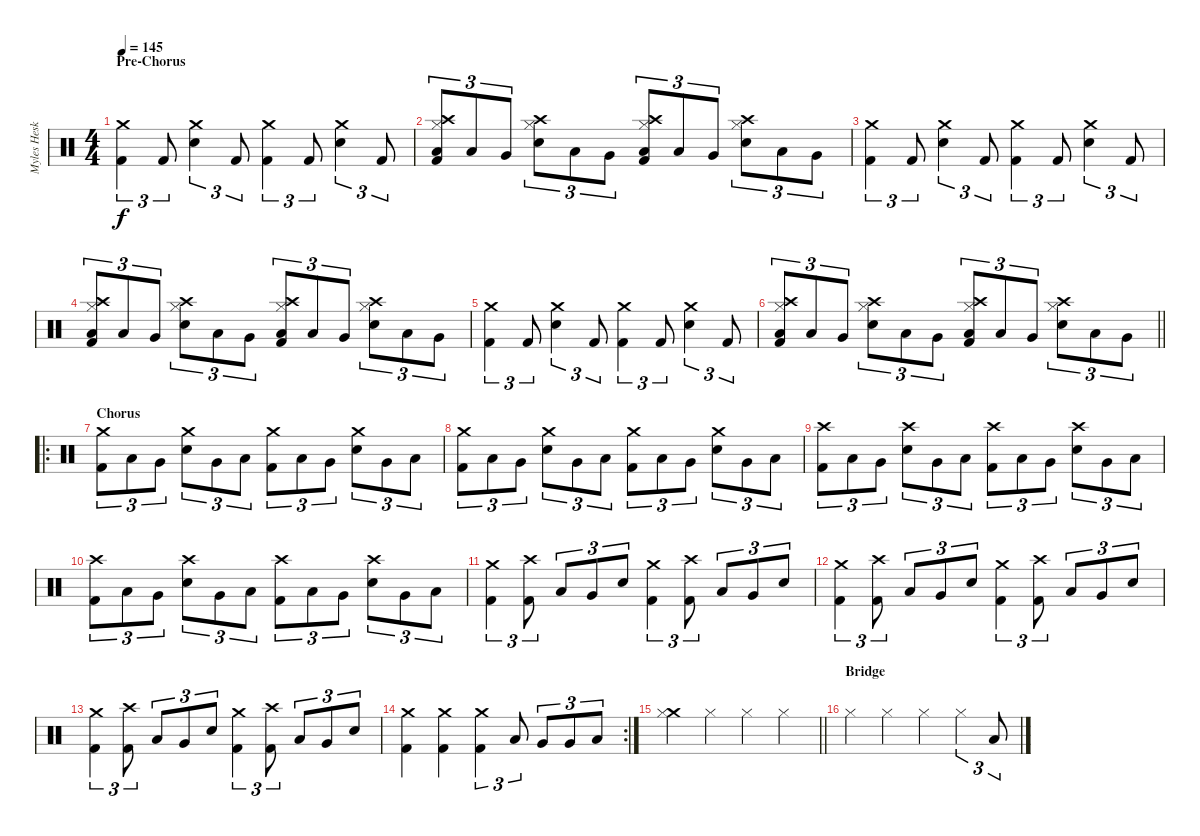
\track ("Myles Heskett" "Myles Hesk") {instrument percussion}
\staff {score}
\articulation defaults
\ts (4 4)
\section ("" "Pre-Chorus")
\tempo 145
\clef neutral
\ks c
("Crash medium (hit)" "Kick (hit) 2").4{tu (3 2) dy f} "Kick (hit) 2".8{tu (3 2)} ("Crash medium (hit)" "Snare (hit) 2").4{tu (3 2)} "Kick (hit) 2".8{tu (3 2)} ("Crash medium (hit)" "Kick (hit) 2").4{tu (3 2)} "Kick (hit) 2".8{tu (3 2)} ("Crash medium (hit)" "Snare (hit) 2").4{tu (3 2)} "Kick (hit) 2".8{tu (3 2)} |
("Crash high (hit)" "Hi-Hat (closed)" "Low Tom (hit)" "Kick (hit) 2").8{tu (3 2)} "Low Tom (hit)".8{tu (3 2)} "Very Low Tom (hit)".8{tu (3 2)} ("Crash high (hit)" "Hi-Hat (closed)" "Snare (hit) 2").8{tu (3 2)} "Low Tom (hit)".8{tu (3 2)} "Very Low Tom (hit)".8{tu (3 2)} ("Crash high (hit)" "Hi-Hat (closed)" "Low Tom (hit)" "Kick (hit) 2").8{tu (3 2)} "Low Tom (hit)".8{tu (3 2)} "Very Low Tom (hit)".8{tu (3 2)} ("Crash high (hit)" "Hi-Hat (closed)" "Snare (hit) 2").8{tu (3 2)} "Low Tom (hit)".8{tu (3 2)} "Very Low Tom (hit)".8{tu (3 2)} |
("Crash medium (hit)" "Kick (hit) 2").4{tu (3 2)} "Kick (hit) 2".8{tu (3 2)} ("Crash medium (hit)" "Snare (hit) 2").4{tu (3 2)} "Kick (hit) 2".8{tu (3 2)} ("Crash medium (hit)" "Kick (hit) 2").4{tu (3 2)} "Kick (hit) 2".8{tu (3 2)} ("Crash medium (hit)" "Snare (hit) 2").4{tu (3 2)} "Kick (hit) 2".8{tu (3 2)} |
("Crash high (hit)" "Hi-Hat (closed)" "Low Tom (hit)" "Kick (hit) 2").8{tu (3 2)} "Low Tom (hit)".8{tu (3 2)} "Very Low Tom (hit)".8{tu (3 2)} ("Crash high (hit)" "Hi-Hat (closed)" "Snare (hit) 2").8{tu (3 2)} "Low Tom (hit)".8{tu (3 2)} "Very Low Tom (hit)".8{tu (3 2)} ("Crash high (hit)" "Hi-Hat (closed)" "Low Tom (hit)" "Kick (hit) 2").8{tu (3 2)} "Low Tom (hit)".8{tu (3 2)} "Very Low Tom (hit)".8{tu (3 2)} ("Crash high (hit)" "Hi-Hat (closed)" "Snare (hit) 2").8{tu (3 2)} "Low Tom (hit)".8{tu (3 2)} "Very Low Tom (hit)".8{tu (3 2)} |
("Crash medium (hit)" "Kick (hit) 2").4{tu (3 2)} "Kick (hit) 2".8{tu (3 2)} ("Crash medium (hit)" "Snare (hit) 2").4{tu (3 2)} "Kick (hit) 2".8{tu (3 2)} ("Crash medium (hit)" "Kick (hit) 2").4{tu (3 2)} "Kick (hit) 2".8{tu (3 2)} ("Crash medium (hit)" "Snare (hit) 2").4{tu (3 2)} "Kick (hit) 2".8{tu (3 2)} |
\barLineRight lightlight
("Crash high (hit)" "Hi-Hat (closed)" "Low Tom (hit)" "Kick (hit) 2").8{tu (3 2)} "Low Tom (hit)".8{tu (3 2)} "Very Low Tom (hit)".8{tu (3 2)} ("Crash high (hit)" "Hi-Hat (closed)" "Snare (hit) 2").8{tu (3 2)} "Low Tom (hit)".8{tu (3 2)} "Very Low Tom (hit)".8{tu (3 2)} ("Crash high (hit)" "Hi-Hat (closed)" "Low Tom (hit)" "Kick (hit) 2").8{tu (3 2)} "Low Tom (hit)".8{tu (3 2)} "Very Low Tom (hit)".8{tu (3 2)} ("Crash high (hit)" "Hi-Hat (closed)" "Snare (hit) 2").8{tu (3 2)} "Low Tom (hit)".8{tu (3 2)} "Very Low Tom (hit)".8{tu (3 2)} |
\ro
\section ("" "Chorus")
("Crash medium (hit)" "Kick (hit) 2").8{tu (3 2)} "Low Tom (hit)".8{tu (3 2)} "Very Low Tom (hit)".8{tu (3 2)} ("Crash medium (hit)" "Snare (hit) 2").8{tu (3 2)} "Very Low Tom (hit)".8{tu (3 2)} "Low Tom (hit)".8{tu (3 2)} ("Crash medium (hit)" "Kick (hit) 2").8{tu (3 2)} "Low Tom (hit)".8{tu (3 2)} "Very Low Tom (hit)".8{tu (3 2)} ("Crash medium (hit)" "Snare (hit) 2").8{tu (3 2)} "Very Low Tom (hit)".8{tu (3 2)} "Low Tom (hit)".8{tu (3 2)} |
("Crash medium (hit)" "Kick (hit) 2").8{tu (3 2)} "Low Tom (hit)".8{tu (3 2)} "Very Low Tom (hit)".8{tu (3 2)} ("Crash medium (hit)" "Snare (hit) 2").8{tu (3 2)} "Very Low Tom (hit)".8{tu (3 2)} "Low Tom (hit)".8{tu (3 2)} ("Crash medium (hit)" "Kick (hit) 2").8{tu (3 2)} "Low Tom (hit)".8{tu (3 2)} "Very Low Tom (hit)".8{tu (3 2)} ("Crash medium (hit)" "Snare (hit) 2").8{tu (3 2)} "Very Low Tom (hit)".8{tu (3 2)} "Low Tom (hit)".8{tu (3 2)} |
("Crash high (hit)" "Kick (hit) 2").8{tu (3 2)} "Low Tom (hit)".8{tu (3 2)} "Very Low Tom (hit)".8{tu (3 2)} ("Crash high (hit)" "Snare (hit) 2").8{tu (3 2)} "Very Low Tom (hit)".8{tu (3 2)} "Low Tom (hit)".8{tu (3 2)} ("Crash high (hit)" "Kick (hit) 2").8{tu (3 2)} "Low Tom (hit)".8{tu (3 2)} "Very Low Tom (hit)".8{tu (3 2)} ("Crash high (hit)" "Snare (hit) 2").8{tu (3 2)} "Very Low Tom (hit)".8{tu (3 2)} "Low Tom (hit)".8{tu (3 2)} |
("Crash high (hit)" "Kick (hit) 2").8{tu (3 2)} "Low Tom (hit)".8{tu (3 2)} "Very Low Tom (hit)".8{tu (3 2)} ("Crash high (hit)" "Snare (hit) 2").8{tu (3 2)} "Very Low Tom (hit)".8{tu (3 2)} "Low Tom (hit)".8{tu (3 2)} ("Crash high (hit)" "Kick (hit) 2").8{tu (3 2)} "Low Tom (hit)".8{tu (3 2)} "Very Low Tom (hit)".8{tu (3 2)} ("Crash high (hit)" "Snare (hit) 2").8{tu (3 2)} "Very Low Tom (hit)".8{tu (3 2)} "Low Tom (hit)".8{tu (3 2)} |
("Crash medium (hit)" "Kick (hit) 2").4{tu (3 2)} ("Crash high (hit)" "Kick (hit) 2").8{tu (3 2)} "Low Tom (hit)".8{tu (3 2)} "Very Low Tom (hit)".8{tu (3 2)} "Snare (hit) 2".8{tu (3 2)} ("Crash medium (hit)" "Kick (hit) 2").4{tu (3 2)} ("Crash high (hit)" "Kick (hit) 2").8{tu (3 2)} "Low Tom (hit)".8{tu (3 2)} "Very Low Tom (hit)".8{tu (3 2)} "Snare (hit) 2".8{tu (3 2)} |
("Crash medium (hit)" "Kick (hit) 2").4{tu (3 2)} ("Crash high (hit)" "Kick (hit) 2").8{tu (3 2)} "Low Tom (hit)".8{tu (3 2)} "Very Low Tom (hit)".8{tu (3 2)} "Snare (hit) 2".8{tu (3 2)} ("Crash medium (hit)" "Kick (hit) 2").4{tu (3 2)} ("Crash high (hit)" "Kick (hit) 2").8{tu (3 2)} "Low Tom (hit)".8{tu (3 2)} "Very Low Tom (hit)".8{tu (3 2)} "Snare (hit) 2".8{tu (3 2)} |
("Crash medium (hit)" "Kick (hit) 2").4{tu (3 2)} ("Crash high (hit)" "Kick (hit) 2").8{tu (3 2)} "Low Tom (hit)".8{tu (3 2)} "Very Low Tom (hit)".8{tu (3 2)} "Snare (hit) 2".8{tu (3 2)} ("Crash medium (hit)" "Kick (hit) 2").4{tu (3 2)} ("Crash high (hit)" "Kick (hit) 2").8{tu (3 2)} "Low Tom (hit)".8{tu (3 2)} "Very Low Tom (hit)".8{tu (3 2)} "Snare (hit) 2".8{tu (3 2)} |
\rc 2
("Crash medium (hit)" "Kick (hit) 2").4 ("Crash medium (hit)" "Kick (hit) 2").4 ("Crash medium (hit)" "Kick (hit) 2").4{tu (3 2)} "Low Tom (hit)".8{tu (3 2)} "Very Low Tom (hit)".8{tu (3 2)} "Very Low Tom (hit)".8{tu (3 2)} "Low Tom (hit)".8{tu (3 2)} |
\barLineRight lightlight
("Crash medium (hit)" "Hi-Hat (closed)").4 "Hi-Hat (closed)".4 "Hi-Hat (closed)".4 "Hi-Hat (closed)".4 |
\section ("" "Bridge")
"Hi-Hat (closed)".4 "Hi-Hat (closed)".4 "Hi-Hat (closed)".4 "Hi-Hat (closed)".4{tu (3 2)} "Low Tom (hit)".8{tu (3 2)}
